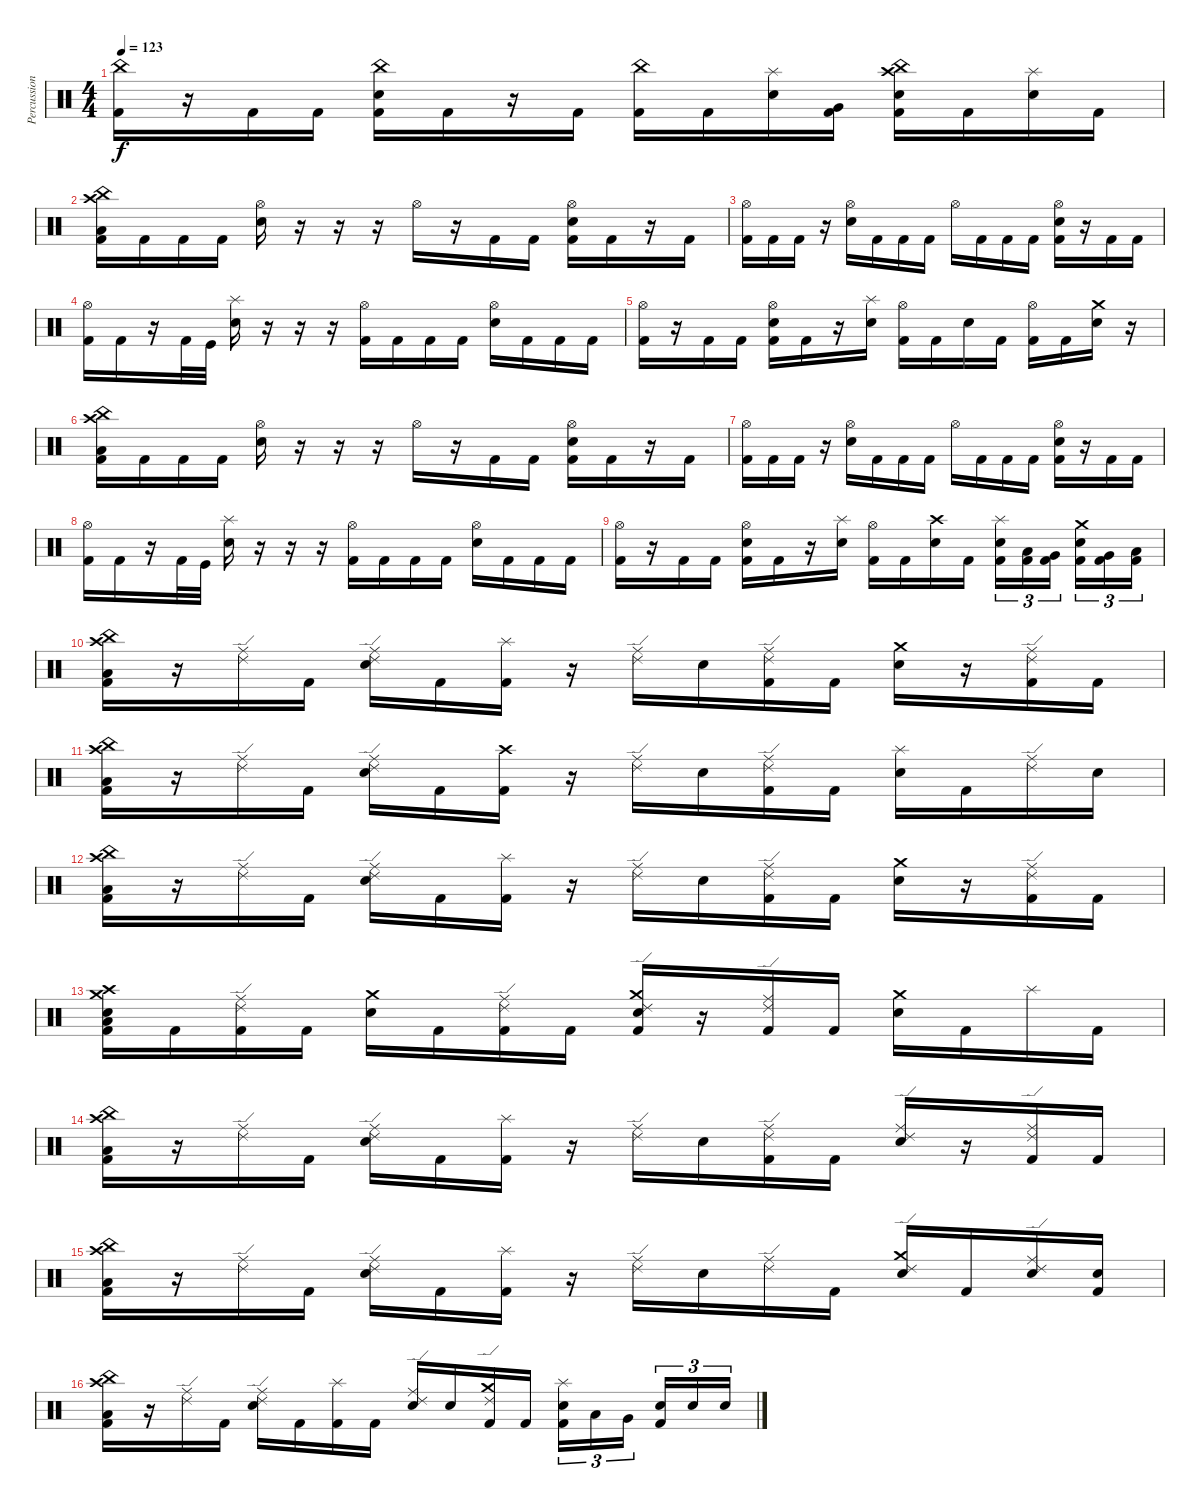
\track ("Percussion" "Percussion") {instrument percussion}
\staff {score}
\articulation defaults
\ts (4 4)
\tempo 123
\clef neutral
\ks c
("China (hit)" "Kick (hit) 2").16{dy f} r.16 "Kick (hit) 2".16 "Kick (hit) 2".16 ("China (hit)" "Electric Snare (hit)" "Kick (hit) 2").16 "Kick (hit) 2".16 r.16 "Kick (hit) 2".16 ("China (hit)" "Kick (hit) 2").16 "Kick (hit) 2".16 ("Splash (hit)" "Electric Snare (hit)").16 ("Very Low Tom (hit)" "Kick (hit) 2").16 ("China (hit)" "Crash high (hit)" "Electric Snare (hit)" "Kick (hit) 2").16 "Kick (hit) 2".16 ("Splash (hit)" "Electric Snare (hit)").16 "Kick (hit) 2".16 |
("Crash high (hit)" "China (hit)" "Low Floor Tom (hit)" "Kick (hit) 2").16 "Kick (hit) 2".16 "Kick (hit) 2".16 "Kick (hit) 2".16 ("Hi-Hat (open)" "Electric Snare (hit)").16 r.16 r.16 r.16 "Hi-Hat (open)".16 r.16 "Kick (hit) 2".16 "Kick (hit) 2".16 ("Hi-Hat (open)" "Electric Snare (hit)" "Kick (hit) 2").16 "Kick (hit) 2".16 r.16 "Kick (hit) 2".16 |
("Hi-Hat (open)" "Kick (hit) 2").16 "Kick (hit) 2".16 "Kick (hit) 2".16 r.16 ("Hi-Hat (open)" "Electric Snare (hit)").16 "Kick (hit) 2".16 "Kick (hit) 2".16 "Kick (hit) 2".16 "Hi-Hat (open)".16 "Kick (hit) 2".16 "Kick (hit) 2".16 "Kick (hit) 2".16 ("Hi-Hat (open)" "Electric Snare (hit)" "Kick (hit) 2").16 r.16 "Kick (hit) 2".16 "Kick (hit) 2".16 |
("Hi-Hat (open)" "Kick (hit) 2").16 "Kick (hit) 2".16 r.16 "Kick (hit) 2".32 "Kick (hit)".32 ("Splash (hit)" "Electric Snare (hit)").16 r.16 r.16 r.16 ("Hi-Hat (open)" "Kick (hit) 2").16 "Kick (hit) 2".16 "Kick (hit) 2".16 "Kick (hit) 2".16 ("Hi-Hat (open)" "Electric Snare (hit)").16 "Kick (hit) 2".16 "Kick (hit) 2".16 "Kick (hit) 2".16 |
("Hi-Hat (open)" "Kick (hit) 2").16 r.16 "Kick (hit) 2".16 "Kick (hit) 2".16 ("Hi-Hat (open)" "Electric Snare (hit)" "Kick (hit) 2").16 "Kick (hit) 2".16 r.16 ("Splash (hit)" "Electric Snare (hit)").16 ("Hi-Hat (open)" "Kick (hit) 2").16 "Kick (hit) 2".16 "Electric Snare (hit)".16 "Kick (hit) 2".16 ("Hi-Hat (open)" "Kick (hit) 2").16 "Kick (hit) 2".16 ("Crash medium (hit)" "Electric Snare (hit)").16 r.16 |
("Crash high (hit)" "China (hit)" "Low Floor Tom (hit)" "Kick (hit) 2").16 "Kick (hit) 2".16 "Kick (hit) 2".16 "Kick (hit) 2".16 ("Hi-Hat (open)" "Electric Snare (hit)").16 r.16 r.16 r.16 "Hi-Hat (open)".16 r.16 "Kick (hit) 2".16 "Kick (hit) 2".16 ("Hi-Hat (open)" "Electric Snare (hit)" "Kick (hit) 2").16 "Kick (hit) 2".16 r.16 "Kick (hit) 2".16 |
("Hi-Hat (open)" "Kick (hit) 2").16 "Kick (hit) 2".16 "Kick (hit) 2".16 r.16 ("Hi-Hat (open)" "Electric Snare (hit)").16 "Kick (hit) 2".16 "Kick (hit) 2".16 "Kick (hit) 2".16 "Hi-Hat (open)".16 "Kick (hit) 2".16 "Kick (hit) 2".16 "Kick (hit) 2".16 ("Hi-Hat (open)" "Electric Snare (hit)" "Kick (hit) 2").16 r.16 "Kick (hit) 2".16 "Kick (hit) 2".16 |
("Hi-Hat (open)" "Kick (hit) 2").16 "Kick (hit) 2".16 r.16 "Kick (hit) 2".32 "Kick (hit)".32 ("Splash (hit)" "Electric Snare (hit)").16 r.16 r.16 r.16 ("Hi-Hat (open)" "Kick (hit) 2").16 "Kick (hit) 2".16 "Kick (hit) 2".16 "Kick (hit) 2".16 ("Hi-Hat (open)" "Electric Snare (hit)").16 "Kick (hit) 2".16 "Kick (hit) 2".16 "Kick (hit) 2".16 |
("Hi-Hat (open)" "Kick (hit) 2").16 r.16 "Kick (hit) 2".16 "Kick (hit) 2".16 ("Hi-Hat (open)" "Electric Snare (hit)" "Kick (hit) 2").16 "Kick (hit) 2".16 r.16 ("Splash (hit)" "Electric Snare (hit)").16 ("Hi-Hat (open)" "Kick (hit) 2").16 "Kick (hit) 2".16 ("Crash high (hit)" "Electric Snare (hit)").16 "Kick (hit) 2".16 ("Splash (hit)" "Electric Snare (hit)" "Kick (hit) 2").16{tu (3 2)} ("Low Tom (hit)" "Kick (hit) 2").16{tu (3 2)} ("Very Low Tom (hit)" "Kick (hit) 2").16{tu (3 2)} ("Crash medium (hit)" "Electric Snare (hit)" "Kick (hit) 2").16{tu (3 2)} ("Very Low Tom (hit)" "Kick (hit) 2").16{tu (3 2)} ("Low Floor Tom (hit)" "Kick (hit) 2").16{tu (3 2)} |
("China (hit)" "Crash high (hit)" "Low Floor Tom (hit)" "Kick (hit) 2").16 r.16 ("Ride (middle)" "Ride (edge) 2").16 "Kick (hit) 2".16 ("Ride (middle)" "Ride (edge) 2" "Electric Snare (hit)").16 "Kick (hit) 2".16 ("Splash (hit)" "Kick (hit) 2").16 r.16 ("Ride (middle)" "Ride (edge) 2").16 "Electric Snare (hit)".16 ("Ride (middle)" "Ride (edge) 2" "Kick (hit) 2").16 "Kick (hit) 2".16 ("Crash medium (hit)" "Electric Snare (hit)").16 r.16 ("Ride (middle)" "Ride (edge) 2" "Kick (hit) 2").16 "Kick (hit) 2".16 |
("China (hit)" "Crash high (hit)" "Low Floor Tom (hit)" "Kick (hit) 2").16 r.16 ("Ride (middle)" "Ride (edge) 2").16 "Kick (hit) 2".16 ("Ride (middle)" "Ride (edge) 2" "Electric Snare (hit)").16 "Kick (hit) 2".16 ("Crash high (hit)" "Kick (hit) 2").16 r.16 ("Ride (middle)" "Ride (edge) 2").16 "Electric Snare (hit)".16 ("Ride (middle)" "Ride (edge) 2" "Kick (hit) 2").16 "Kick (hit) 2".16 ("Splash (hit)" "Electric Snare (hit)").16 "Kick (hit) 2".16 ("Ride (middle)" "Ride (edge) 2").16 "Electric Snare (hit)".16 |
("China (hit)" "Crash high (hit)" "Low Floor Tom (hit)" "Kick (hit) 2").16 r.16 ("Ride (middle)" "Ride (edge) 2").16 "Kick (hit) 2".16 ("Ride (middle)" "Ride (edge) 2" "Electric Snare (hit)").16 "Kick (hit) 2".16 ("Splash (hit)" "Kick (hit) 2").16 r.16 ("Ride (middle)" "Ride (edge) 2").16 "Electric Snare (hit)".16 ("Ride (middle)" "Ride (edge) 2" "Kick (hit) 2").16 "Kick (hit) 2".16 ("Crash medium (hit)" "Electric Snare (hit)").16 r.16 ("Ride (middle)" "Ride (edge) 2" "Kick (hit) 2").16 "Kick (hit) 2".16 |
("Crash medium (hit)" "Crash high (hit)" "Electric Snare (hit)" "Low Floor Tom (hit)" "Kick (hit) 2").16 "Kick (hit) 2".16 ("Ride (middle)" "Ride (edge) 2" "Kick (hit) 2").16 "Kick (hit) 2".16 ("Crash medium (hit)" "Electric Snare (hit)").16 "Kick (hit) 2".16 ("Ride (middle)" "Ride (edge) 2" "Kick (hit) 2").16 "Kick (hit) 2".16 ("Crash medium (hit)" "Ride (edge) 2" "Electric Snare (hit)" "Kick (hit) 2").16 r.16 ("Ride (middle)" "Ride (edge) 2" "Kick (hit) 2").16 "Kick (hit) 2".16 ("Crash medium (hit)" "Electric Snare (hit)").16 "Kick (hit) 2".16 "Splash (hit)".16 "Kick (hit) 2".16 |
("China (hit)" "Crash high (hit)" "Low Floor Tom (hit)" "Kick (hit) 2").16 r.16 ("Ride (middle)" "Ride (edge) 2").16 "Kick (hit) 2".16 ("Ride (middle)" "Ride (edge) 2" "Electric Snare (hit)").16 "Kick (hit) 2".16 ("Splash (hit)" "Kick (hit) 2").16 r.16 ("Ride (middle)" "Ride (edge) 2").16 "Electric Snare (hit)".16 ("Ride (middle)" "Ride (edge) 2" "Kick (hit) 2").16 "Kick (hit) 2".16 ("Ride (middle)" "Ride (edge) 2" "Electric Snare (hit)").16 r.16 ("Ride (middle)" "Ride (edge) 2" "Kick (hit) 2").16 "Kick (hit) 2".16 |
("China (hit)" "Crash high (hit)" "Low Floor Tom (hit)" "Kick (hit) 2").16 r.16 ("Ride (middle)" "Ride (edge) 2").16 "Kick (hit) 2".16 ("Ride (middle)" "Ride (edge) 2" "Electric Snare (hit)").16 "Kick (hit) 2".16 ("Splash (hit)" "Kick (hit) 2").16 r.16 ("Ride (middle)" "Ride (edge) 2").16 "Electric Snare (hit)".16 ("Ride (middle)" "Ride (edge) 2").16 "Kick (hit) 2".16 ("Crash medium (hit)" "Ride (edge) 2" "Electric Snare (hit)").16 "Kick (hit) 2".16 ("Ride (middle)" "Ride (edge) 2" "Electric Snare (hit)").16 ("Electric Snare (hit)" "Kick (hit) 2").16 |
("China (hit)" "Crash high (hit)" "Low Floor Tom (hit)" "Kick (hit) 2").16 r.16 ("Ride (middle)" "Ride (edge) 2").16 "Kick (hit) 2".16 ("Ride (middle)" "Ride (edge) 2" "Electric Snare (hit)").16 "Kick (hit) 2".16 ("Splash (hit)" "Kick (hit) 2").16 "Kick (hit) 2".16 ("Ride (middle)" "Ride (edge) 2" "Electric Snare (hit)").16 "Electric Snare (hit)".16 ("Crash medium (hit)" "Ride (edge) 2" "Kick (hit) 2").16 "Kick (hit) 2".16 ("Splash (hit)" "Electric Snare (hit)" "Kick (hit) 2").16{tu (3 2)} "Low Tom (hit)".16{tu (3 2)} "Very Low Tom (hit)".16{tu (3 2)} ("Electric Snare (hit)" "Kick (hit) 2").16{tu (3 2)} "Electric Snare (hit)".16{tu (3 2)} "Electric Snare (hit)".16{tu (3 2)}
